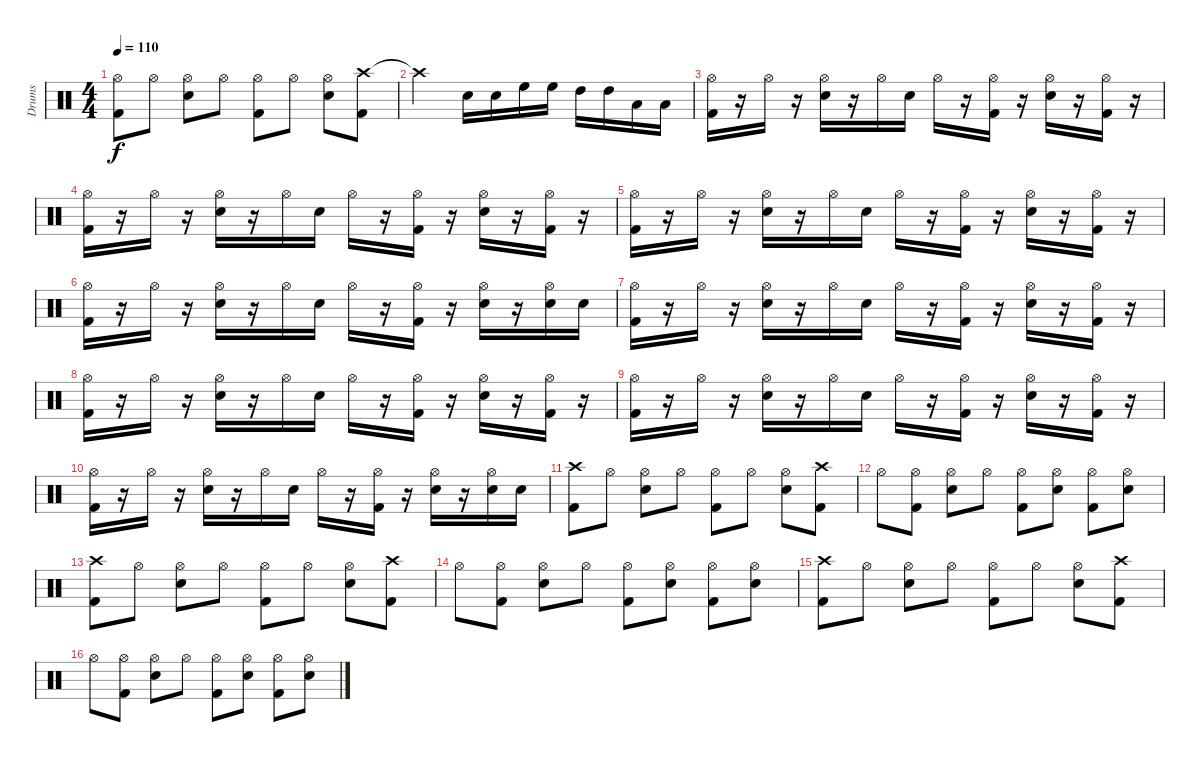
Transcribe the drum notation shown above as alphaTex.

\track ("Drums" "Drums") {instrument percussion}
\staff {score}
\articulation defaults
\ts (4 4)
\tempo 110
\clef neutral
\ks c
("Hi-Hat (open)" "Kick (hit) 2").8{dy f} "Hi-Hat (open)".8 ("Hi-Hat (open)" "Electric Snare (hit)").8 "Hi-Hat (open)".8 ("Hi-Hat (open)" "Kick (hit) 2").8 "Hi-Hat (open)".8 ("Hi-Hat (open)" "Electric Snare (hit)").8 ("Crash high (hit)" "Kick (hit) 2").8 |
"Crash high (hit)"{t}.2 "Electric Snare (hit)".16 "Electric Snare (hit)".16 "High Floor Tom (hit)".16 "High Floor Tom (hit)".16 "High Tom (hit)".16 "High Tom (hit)".16 "Low Tom (hit)".16 "Low Tom (hit)".16 |
("Hi-Hat (open)" "Kick (hit) 2").16 r.16 "Hi-Hat (open)".16 r.16 ("Hi-Hat (open)" "Electric Snare (hit)").16 r.16 "Hi-Hat (open)".16 "Electric Snare (hit)".16 "Hi-Hat (open)".16 r.16 ("Hi-Hat (open)" "Kick (hit) 2").16 r.16 ("Hi-Hat (open)" "Electric Snare (hit)").16 r.16 ("Hi-Hat (open)" "Kick (hit) 2").16 r.16 |
("Hi-Hat (open)" "Kick (hit) 2").16 r.16 "Hi-Hat (open)".16 r.16 ("Hi-Hat (open)" "Electric Snare (hit)").16 r.16 "Hi-Hat (open)".16 "Electric Snare (hit)".16 "Hi-Hat (open)".16 r.16 ("Hi-Hat (open)" "Kick (hit) 2").16 r.16 ("Hi-Hat (open)" "Electric Snare (hit)").16 r.16 ("Hi-Hat (open)" "Kick (hit) 2").16 r.16 |
("Hi-Hat (open)" "Kick (hit) 2").16 r.16 "Hi-Hat (open)".16 r.16 ("Hi-Hat (open)" "Electric Snare (hit)").16 r.16 "Hi-Hat (open)".16 "Electric Snare (hit)".16 "Hi-Hat (open)".16 r.16 ("Hi-Hat (open)" "Kick (hit) 2").16 r.16 ("Hi-Hat (open)" "Electric Snare (hit)").16 r.16 ("Hi-Hat (open)" "Kick (hit) 2").16 r.16 |
("Hi-Hat (open)" "Kick (hit) 2").16 r.16 "Hi-Hat (open)".16 r.16 ("Hi-Hat (open)" "Electric Snare (hit)").16 r.16 "Hi-Hat (open)".16 "Electric Snare (hit)".16 "Hi-Hat (open)".16 r.16 ("Hi-Hat (open)" "Kick (hit) 2").16 r.16 ("Hi-Hat (open)" "Electric Snare (hit)").16 r.16 ("Hi-Hat (open)" "Electric Snare (hit)").16 "Electric Snare (hit)".16 |
("Hi-Hat (open)" "Kick (hit) 2").16 r.16 "Hi-Hat (open)".16 r.16 ("Hi-Hat (open)" "Electric Snare (hit)").16 r.16 "Hi-Hat (open)".16 "Electric Snare (hit)".16 "Hi-Hat (open)".16 r.16 ("Hi-Hat (open)" "Kick (hit) 2").16 r.16 ("Hi-Hat (open)" "Electric Snare (hit)").16 r.16 ("Hi-Hat (open)" "Kick (hit) 2").16 r.16 |
("Hi-Hat (open)" "Kick (hit) 2").16 r.16 "Hi-Hat (open)".16 r.16 ("Hi-Hat (open)" "Electric Snare (hit)").16 r.16 "Hi-Hat (open)".16 "Electric Snare (hit)".16 "Hi-Hat (open)".16 r.16 ("Hi-Hat (open)" "Kick (hit) 2").16 r.16 ("Hi-Hat (open)" "Electric Snare (hit)").16 r.16 ("Hi-Hat (open)" "Kick (hit) 2").16 r.16 |
("Hi-Hat (open)" "Kick (hit) 2").16 r.16 "Hi-Hat (open)".16 r.16 ("Hi-Hat (open)" "Electric Snare (hit)").16 r.16 "Hi-Hat (open)".16 "Electric Snare (hit)".16 "Hi-Hat (open)".16 r.16 ("Hi-Hat (open)" "Kick (hit) 2").16 r.16 ("Hi-Hat (open)" "Electric Snare (hit)").16 r.16 ("Hi-Hat (open)" "Kick (hit) 2").16 r.16 |
("Hi-Hat (open)" "Kick (hit) 2").16 r.16 "Hi-Hat (open)".16 r.16 ("Hi-Hat (open)" "Electric Snare (hit)").16 r.16 "Hi-Hat (open)".16 "Electric Snare (hit)".16 "Hi-Hat (open)".16 r.16 ("Hi-Hat (open)" "Kick (hit) 2").16 r.16 ("Hi-Hat (open)" "Electric Snare (hit)").16 r.16 ("Hi-Hat (open)" "Electric Snare (hit)").16 "Electric Snare (hit)".16 |
("Crash high (hit)" "Kick (hit) 2").8 "Hi-Hat (open)".8 ("Hi-Hat (open)" "Electric Snare (hit)").8 "Hi-Hat (open)".8 ("Hi-Hat (open)" "Kick (hit) 2").8 "Hi-Hat (open)".8 ("Hi-Hat (open)" "Electric Snare (hit)").8 ("Crash high (hit)" "Kick (hit) 2").8 |
"Hi-Hat (open)".8 ("Hi-Hat (open)" "Kick (hit) 2").8 ("Hi-Hat (open)" "Electric Snare (hit)").8 "Hi-Hat (open)".8 ("Hi-Hat (open)" "Kick (hit) 2").8 ("Hi-Hat (open)" "Electric Snare (hit)").8 ("Hi-Hat (open)" "Kick (hit) 2").8 ("Hi-Hat (open)" "Electric Snare (hit)").8 |
("Crash high (hit)" "Kick (hit) 2").8 "Hi-Hat (open)".8 ("Hi-Hat (open)" "Electric Snare (hit)").8 "Hi-Hat (open)".8 ("Hi-Hat (open)" "Kick (hit) 2").8 "Hi-Hat (open)".8 ("Hi-Hat (open)" "Electric Snare (hit)").8 ("Crash high (hit)" "Kick (hit) 2").8 |
"Hi-Hat (open)".8 ("Hi-Hat (open)" "Kick (hit) 2").8 ("Hi-Hat (open)" "Electric Snare (hit)").8 "Hi-Hat (open)".8 ("Hi-Hat (open)" "Kick (hit) 2").8 ("Hi-Hat (open)" "Electric Snare (hit)").8 ("Hi-Hat (open)" "Kick (hit) 2").8 ("Hi-Hat (open)" "Electric Snare (hit)").8 |
("Crash high (hit)" "Kick (hit) 2").8 "Hi-Hat (open)".8 ("Hi-Hat (open)" "Electric Snare (hit)").8 "Hi-Hat (open)".8 ("Hi-Hat (open)" "Kick (hit) 2").8 "Hi-Hat (open)".8 ("Hi-Hat (open)" "Electric Snare (hit)").8 ("Crash high (hit)" "Kick (hit) 2").8 |
"Hi-Hat (open)".8 ("Hi-Hat (open)" "Kick (hit) 2").8 ("Hi-Hat (open)" "Electric Snare (hit)").8 "Hi-Hat (open)".8 ("Hi-Hat (open)" "Kick (hit) 2").8 ("Hi-Hat (open)" "Electric Snare (hit)").8 ("Hi-Hat (open)" "Kick (hit) 2").8 ("Hi-Hat (open)" "Electric Snare (hit)").8
